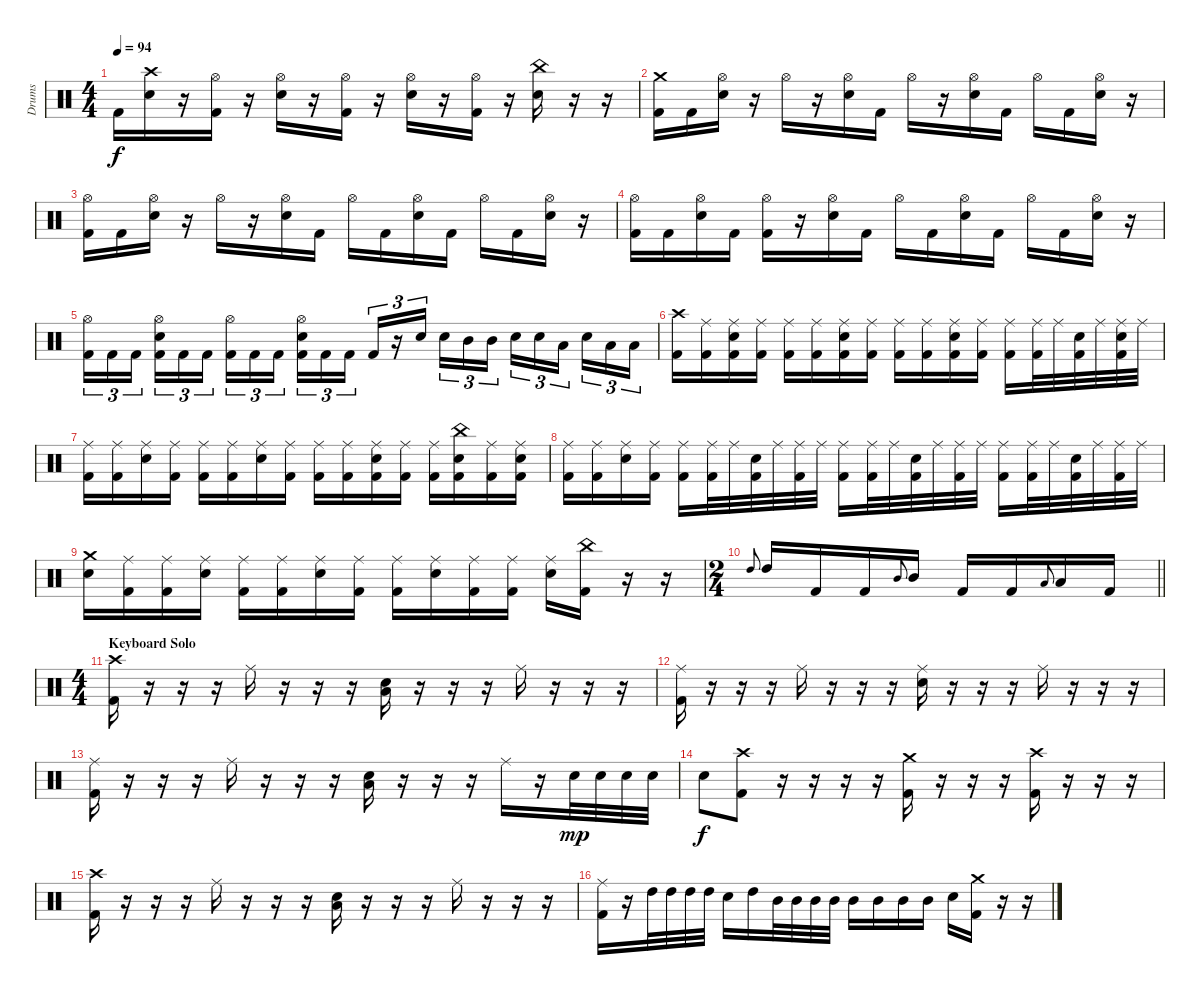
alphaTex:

\track ("Drums" "Drums") {instrument percussion}
\staff {score}
\articulation defaults
\ts (4 4)
\tempo 94
\clef neutral
\ks c "Kick (hit) 2".16{dy f}
("Snare (hit) 2" "Crash high (hit)").16 r.16 ("Hi-Hat (open)" "Kick (hit) 2").16 r.16 ("Hi-Hat (open)" "Snare (hit) 2").16 r.16 ("Hi-Hat (open)" "Kick (hit) 2").16 r.16 ("Hi-Hat (open)" "Snare (hit) 2").16 r.16 ("Hi-Hat (open)" "Kick (hit) 2").16 r.16 ("China (hit)" "Snare (hit) 2").16 r.16 r.16 |
("Kick (hit) 2" "Crash medium (hit)").16 "Kick (hit) 2".16 ("Hi-Hat (open)" "Snare (hit) 2").16 r.16 "Hi-Hat (open)".16 r.16 ("Hi-Hat (open)" "Snare (hit) 2").16 "Kick (hit) 2".16 "Hi-Hat (open)".16 r.16 ("Hi-Hat (open)" "Snare (hit) 2").16 "Kick (hit) 2".16 "Hi-Hat (open)".16 "Kick (hit) 2".16 ("Hi-Hat (open)" "Snare (hit) 2").16 r.16 |
("Kick (hit) 2" "Hi-Hat (open)").16 "Kick (hit) 2".16 ("Hi-Hat (open)" "Snare (hit) 2").16 r.16 "Hi-Hat (open)".16 r.16 ("Hi-Hat (open)" "Snare (hit) 2").16 "Kick (hit) 2".16 "Hi-Hat (open)".16 "Kick (hit) 2".16 ("Hi-Hat (open)" "Snare (hit) 2").16 "Kick (hit) 2".16 "Hi-Hat (open)".16 "Kick (hit) 2".16 ("Hi-Hat (open)" "Snare (hit) 2").16 r.16 |
("Kick (hit) 2" "Hi-Hat (open)").16 "Kick (hit) 2".16 ("Hi-Hat (open)" "Snare (hit) 2").16 "Kick (hit) 2".16 ("Hi-Hat (open)" "Kick (hit) 2").16 r.16 ("Hi-Hat (open)" "Snare (hit) 2").16 "Kick (hit) 2".16 "Hi-Hat (open)".16 "Kick (hit) 2".16 ("Hi-Hat (open)" "Snare (hit) 2").16 "Kick (hit) 2".16 "Hi-Hat (open)".16 "Kick (hit) 2".16 ("Hi-Hat (open)" "Snare (hit) 2").16 r.16 |
("Kick (hit) 2" "Hi-Hat (open)").16{tu (3 2)} "Kick (hit) 2".16{tu (3 2)} "Kick (hit) 2".16{tu (3 2) beam splitsecondary} ("Kick (hit) 2" "Hi-Hat (open)" "Snare (hit) 2").16{tu (3 2)} "Kick (hit) 2".16{tu (3 2)} "Kick (hit) 2".16{tu (3 2)} ("Hi-Hat (open)" "Kick (hit) 2").16{tu (3 2)} "Kick (hit) 2".16{tu (3 2)} "Kick (hit) 2".16{tu (3 2) beam splitsecondary} ("Kick (hit) 2" "Snare (hit) 2" "Hi-Hat (open)").16{tu (3 2)} "Kick (hit) 2".16{tu (3 2)} "Kick (hit) 2".16{tu (3 2)} "Kick (hit) 2".16{tu (3 2)} r.16{tu (3 2)} "Snare (hit) 2".16{tu (3 2) beam splitsecondary} "Snare (hit) 2".16{tu (3 2)} "Mid Tom (hit)".16{tu (3 2)} "Mid Tom (hit)".16{tu (3 2)} "Snare (hit) 2".16{tu (3 2)} "Snare (hit) 2".16{tu (3 2)} "Low Tom (hit)".16{tu (3 2) beam splitsecondary} "Snare (hit) 2".16{tu (3 2)} "Low Tom (hit)".16{tu (3 2)} "Low Tom (hit)".16{tu (3 2)} |
("Kick (hit) 2" "Crash high (hit)").16 ("Kick (hit) 2" "Ride (middle)").16 ("Kick (hit) 2" "Ride (middle)" "Snare (hit) 2").16 ("Kick (hit) 2" "Ride (middle)").16 ("Kick (hit) 2" "Ride (middle)").16 ("Kick (hit) 2" "Ride (middle)").16 ("Kick (hit) 2" "Ride (middle)" "Snare (hit) 2").16 ("Kick (hit) 2" "Ride (middle)").16 ("Kick (hit) 2" "Ride (middle)").16 ("Kick (hit) 2" "Ride (middle)").16 ("Kick (hit) 2" "Ride (middle)" "Snare (hit) 2").16 ("Kick (hit) 2" "Ride (middle)").16 ("Kick (hit) 2" "Ride (middle)").16 ("Kick (hit) 2" "Ride (middle)").32 "Ride (middle)".32 ("Kick (hit) 2" "Snare (hit) 2").32 "Ride (middle)".32 ("Ride (middle)" "Snare (hit) 2" "Kick (hit) 2").32 "Ride (middle)".32 |
("Kick (hit) 2" "Ride (middle)").16 ("Kick (hit) 2" "Ride (middle)").16 ("Snare (hit) 2" "Ride (middle)").16 ("Kick (hit) 2" "Ride (middle)").16 ("Kick (hit) 2" "Ride (middle)").16 ("Kick (hit) 2" "Ride (middle)").16 ("Snare (hit) 2" "Ride (middle)").16 ("Kick (hit) 2" "Ride (middle)").16 ("Kick (hit) 2" "Ride (middle)").16 ("Kick (hit) 2" "Ride (middle)").16 ("Kick (hit) 2" "Ride (middle)" "Snare (hit) 2").16 ("Kick (hit) 2" "Ride (middle)").16 ("Kick (hit) 2" "Ride (middle)").16 ("Kick (hit) 2" "China (hit)" "Snare (hit) 2").16 ("Kick (hit) 2" "Ride (middle)").16 ("Snare (hit) 2" "Ride (middle)" "Kick (hit) 2").16 |
("Kick (hit) 2" "Ride (middle)").16 ("Kick (hit) 2" "Ride (middle)").16 ("Snare (hit) 2" "Ride (middle)").16 ("Kick (hit) 2" "Ride (middle)").16 ("Kick (hit) 2" "Ride (middle)").16 ("Kick (hit) 2" "Ride (middle)").32 "Ride (middle)".32 ("Kick (hit) 2" "Snare (hit) 2").32 "Ride (middle)".32 ("Ride (middle)" "Kick (hit) 2").32 "Ride (middle)".32 ("Kick (hit) 2" "Ride (middle)").16 ("Kick (hit) 2" "Ride (middle)").32 "Ride (middle)".32 ("Kick (hit) 2" "Snare (hit) 2").32 "Ride (middle)".32 ("Ride (middle)" "Kick (hit) 2").32 "Ride (middle)".32 ("Kick (hit) 2" "Ride (middle)").16 ("Kick (hit) 2" "Ride (middle)").32 "Ride (middle)".32 ("Kick (hit) 2" "Snare (hit) 2").32 "Ride (middle)".32 ("Ride (middle)" "Kick (hit) 2").32 "Ride (middle)".32 |
("Snare (hit) 2" "Crash medium (hit)").16 ("Kick (hit) 2" "Ride (middle)").16 ("Kick (hit) 2" "Ride (middle)").16 ("Snare (hit) 2" "Ride (middle)").16 ("Kick (hit) 2" "Ride (middle)").16 ("Kick (hit) 2" "Ride (middle)").16 ("Snare (hit) 2" "Ride (middle)").16 ("Kick (hit) 2" "Ride (middle)").16 ("Kick (hit) 2" "Ride (middle)").16 ("Snare (hit) 2" "Ride (middle)").16 ("Kick (hit) 2" "Ride (middle)").16 ("Kick (hit) 2" "Ride (middle)").16 ("Snare (hit) 2" "Ride (middle)").16 ("Kick (hit) 2" "China (hit)").16 r.16 r.16 |
\ts (2 4)
\barLineRight lightlight "High Tom (hit)".8{gr onbeat} "High Tom (hit)".16 "Kick (hit) 2".16 "Kick (hit) 2".16 "Mid Tom (hit)".8{gr onbeat} "Mid Tom (hit)".16 "Kick (hit) 2".16 "Kick (hit) 2".16 "Low Tom (hit)".8{gr onbeat} "Low Tom (hit)".16 "Kick (hit) 2".16
|
\ts (4 4)
\section ("" "Keyboard Solo")
("Kick (hit) 2" "Crash high (hit)").16 r.16 r.16 r.16 "Ride (middle)".16 r.16 r.16 r.16 ("Snare (hit) 2" "Low Tom (hit)").16 r.16 r.16 r.16 "Ride (middle)".16 r.16 r.16 r.16 |
("Kick (hit) 2" "Ride (middle)").16 r.16 r.16 r.16 "Ride (middle)".16 r.16 r.16 r.16 ("Snare (hit) 2" "Ride (middle)").16 r.16 r.16 r.16 "Ride (middle)".16 r.16 r.16 r.16 |
("Kick (hit) 2" "Ride (middle)").16 r.16 r.16 r.16 "Ride (middle)".16 r.16 r.16 r.16 ("Snare (hit) 2" "Low Tom (hit)").16 r.16 r.16 r.16 "Ride (middle)".16 r.16 "Snare (hit) 2".32{dy mp} "Snare (hit) 2".32 "Snare (hit) 2".32 "Snare (hit) 2".32 |
"Snare (hit) 2".8{dy f} ("Kick (hit) 2" "Crash high (hit)").8 r.16 r.16 r.16 r.16 ("Kick (hit) 2" "Crash medium (hit)").16 r.16 r.16 r.16 ("Kick (hit) 2" "Crash high (hit)").16 r.16 r.16 r.16 |
("Kick (hit) 2" "Crash high (hit)").16 r.16 r.16 r.16 "Ride (middle)".16 r.16 r.16 r.16 ("Snare (hit) 2" "Low Tom (hit)").16 r.16 r.16 r.16 "Ride (middle)".16 r.16 r.16 r.16 |
("Kick (hit) 2" "Ride (middle)").16 r.16 "High Tom (hit)".32 "High Tom (hit)".32 "High Tom (hit)".32 "High Tom (hit)".32 "Snare (hit) 2".16 "High Tom (hit)".16 "Mid Tom (hit)".32 "Mid Tom (hit)".32 "Mid Tom (hit)".32 "Mid Tom (hit)".32 "Mid Tom (hit)".16 "Mid Tom (hit)".16 "Mid Tom (hit)".16 "Mid Tom (hit)".16 "Snare (hit) 2".16 ("Kick (hit) 2" "Crash medium (hit)").16 r.16 r.16
